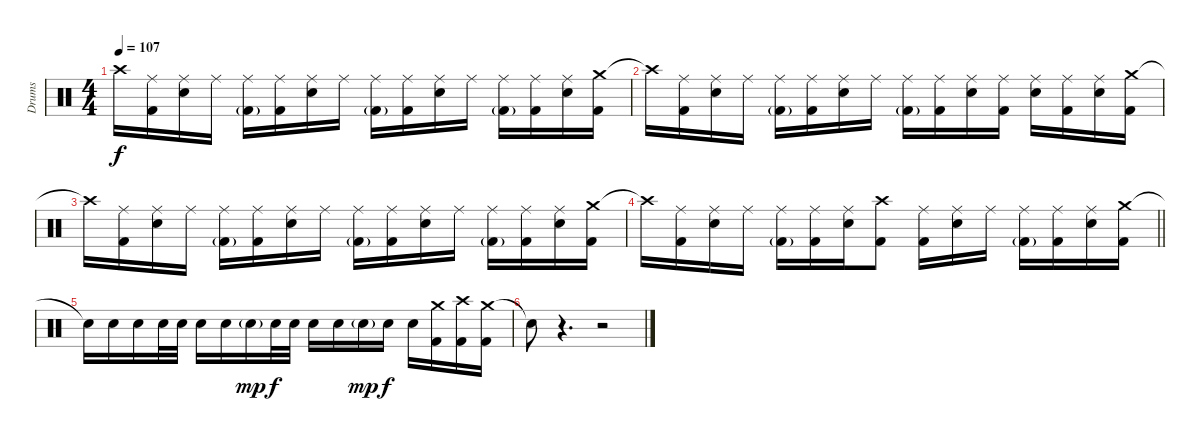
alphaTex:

\track ("Drums" "Drums") {instrument percussion}
\staff {score}
\articulation defaults
\ts (4 4)
\tempo 107
\clef neutral
\ks c "Crash high (hit)"{t}.16{dy f}
("Ride (middle)" "Kick (hit) 2").16 ("Ride (middle)" "Electric Snare (hit)").16 "Ride (middle)".16 ("Ride (middle)" "Kick (hit) 2"{g}).16 ("Ride (middle)" "Kick (hit) 2").16 ("Ride (middle)" "Electric Snare (hit)").16 "Ride (middle)".16 ("Ride (middle)" "Kick (hit) 2"{g}).16 ("Ride (middle)" "Kick (hit) 2").16 ("Ride (middle)" "Electric Snare (hit)").16 "Ride (middle)".16 ("Ride (middle)" "Kick (hit) 2"{g}).16 ("Ride (middle)" "Kick (hit) 2").16 ("Ride (middle)" "Electric Snare (hit)").16 ("Crash medium (hit)" "Kick (hit) 2").16 |
"Crash high (hit)"{t}.16 ("Ride (middle)" "Kick (hit) 2").16 ("Ride (middle)" "Electric Snare (hit)").16 "Ride (middle)".16 ("Ride (middle)" "Kick (hit) 2"{g}).16 ("Ride (middle)" "Kick (hit) 2").16 ("Ride (middle)" "Electric Snare (hit)").16 "Ride (middle)".16 ("Ride (middle)" "Kick (hit) 2"{g}).16 ("Ride (middle)" "Kick (hit) 2").16 ("Ride (middle)" "Electric Snare (hit)").16 ("Ride (middle)" "Kick (hit) 2").16 ("Ride (middle)" "Electric Snare (hit)").16 ("Ride (middle)" "Kick (hit) 2").16 ("Ride (middle)" "Electric Snare (hit)").16 ("Crash medium (hit)" "Kick (hit) 2").16 |
"Crash high (hit)"{t}.16 ("Ride (middle)" "Kick (hit) 2").16 ("Ride (middle)" "Electric Snare (hit)").16 "Ride (middle)".16 ("Ride (middle)" "Kick (hit) 2"{g}).16 ("Ride (middle)" "Kick (hit) 2").16 ("Ride (middle)" "Electric Snare (hit)").16 "Ride (middle)".16 ("Ride (middle)" "Kick (hit) 2"{g}).16 ("Ride (middle)" "Kick (hit) 2").16 ("Ride (middle)" "Electric Snare (hit)").16 "Ride (middle)".16 ("Ride (middle)" "Kick (hit) 2"{g}).16 ("Ride (middle)" "Kick (hit) 2").16 ("Ride (middle)" "Electric Snare (hit)").16 ("Crash medium (hit)" "Kick (hit) 2").16 |
\barLineRight lightlight "Crash high (hit)"{t}.16
("Ride (middle)" "Kick (hit) 2").16 ("Ride (middle)" "Electric Snare (hit)").16 "Ride (middle)".16 ("Ride (middle)" "Kick (hit) 2"{g}).16 ("Ride (middle)" "Kick (hit) 2").16 ("Ride (middle)" "Electric Snare (hit)").16 ("Crash high (hit)" "Kick (hit) 2").8 ("Ride (middle)" "Kick (hit) 2").16 ("Ride (middle)" "Electric Snare (hit)").16 "Ride (middle)".16 ("Ride (middle)" "Kick (hit) 2"{g}).16 ("Ride (middle)" "Kick (hit) 2").16 ("Ride (middle)" "Electric Snare (hit)").16 ("Crash medium (hit)" "Kick (hit) 2").16 |
"Snare (hit)"{t}.16 "Electric Snare (hit)".16 "Electric Snare (hit)".16 "Electric Snare (hit)".32 "Electric Snare (hit)".32 "Electric Snare (hit)".16 "Electric Snare (hit)".16 "Electric Snare (hit)"{g}.16{dy mp} "Electric Snare (hit)".32{dy f} "Electric Snare (hit)".32 "Electric Snare (hit)".16 "Electric Snare (hit)".16 "Electric Snare (hit)"{g}.16{dy mp} "Electric Snare (hit)".16{dy f} "Electric Snare (hit)".16 ("Crash medium (hit)" "Kick (hit) 2").16 ("Crash high (hit)" "Kick (hit) 2").16 ("Crash medium (hit)" "Kick (hit) 2").16 |
"Snare (hit)"{t}.8 r.4{d} r.2
